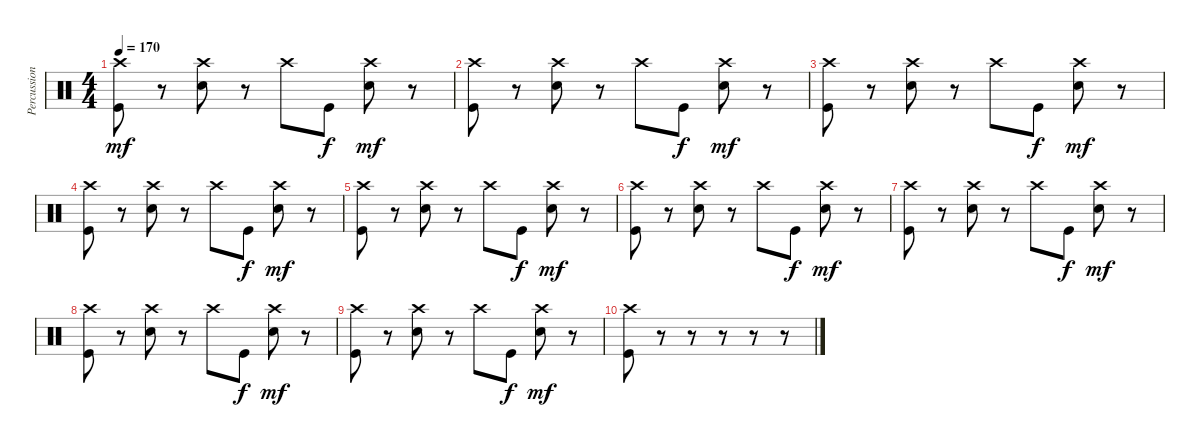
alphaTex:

\track ("Percussion" "Percussion") {instrument percussion}
\staff {score}
\articulation defaults
\ts (4 4)
\tempo 170
\clef neutral
\ks c
("Kick (hit)" "Crash high (hit)").8{dy mf} r.8 ("Snare (hit) 2" "Crash high (hit)").8 r.8 "Crash high (hit)".8 "Kick (hit)".8{dy f} ("Snare (hit) 2" "Crash high (hit)").8{dy mf} r.8 |
("Kick (hit)" "Crash high (hit)").8 r.8 ("Snare (hit) 2" "Crash high (hit)").8 r.8 "Crash high (hit)".8 "Kick (hit)".8{dy f} ("Snare (hit) 2" "Crash high (hit)").8{dy mf} r.8 |
("Kick (hit)" "Crash high (hit)").8 r.8 ("Snare (hit) 2" "Crash high (hit)").8 r.8 "Crash high (hit)".8 "Kick (hit)".8{dy f} ("Snare (hit) 2" "Crash high (hit)").8{dy mf} r.8 |
("Kick (hit)" "Crash high (hit)").8 r.8 ("Snare (hit) 2" "Crash high (hit)").8 r.8 "Crash high (hit)".8 "Kick (hit)".8{dy f} ("Snare (hit) 2" "Crash high (hit)").8{dy mf} r.8 |
("Kick (hit)" "Crash high (hit)").8 r.8 ("Snare (hit) 2" "Crash high (hit)").8 r.8 "Crash high (hit)".8 "Kick (hit)".8{dy f} ("Snare (hit) 2" "Crash high (hit)").8{dy mf} r.8 |
("Kick (hit)" "Crash high (hit)").8 r.8 ("Snare (hit) 2" "Crash high (hit)").8 r.8 "Crash high (hit)".8 "Kick (hit)".8{dy f} ("Snare (hit) 2" "Crash high (hit)").8{dy mf} r.8 |
("Kick (hit)" "Crash high (hit)").8 r.8 ("Snare (hit) 2" "Crash high (hit)").8 r.8 "Crash high (hit)".8 "Kick (hit)".8{dy f} ("Snare (hit) 2" "Crash high (hit)").8{dy mf} r.8 |
("Kick (hit)" "Crash high (hit)").8 r.8 ("Snare (hit) 2" "Crash high (hit)").8 r.8 "Crash high (hit)".8 "Kick (hit)".8{dy f} ("Snare (hit) 2" "Crash high (hit)").8{dy mf} r.8 |
("Kick (hit)" "Crash high (hit)").8 r.8 ("Snare (hit) 2" "Crash high (hit)").8 r.8 "Crash high (hit)".8 "Kick (hit)".8{dy f} ("Snare (hit) 2" "Crash high (hit)").8{dy mf} r.8 |
("Kick (hit)" "Crash high (hit)").8 r.8 r.8 r.8 r.8 r.8
